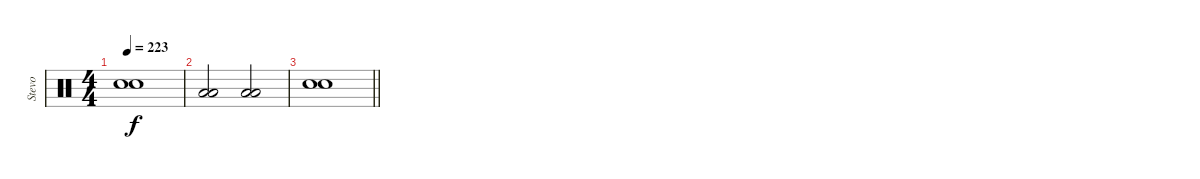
\track ("Stevo" "Stevo") {instrument percussion}
\staff {score}
\articulation defaults
\ts (4 4)
\tempo 223
\clef neutral
\ks c
("Electric Snare (hit)" "Electric Snare (hit)").1{dy f} |
("Low Floor Tom (hit)" "Low Floor Tom (hit)").2 ("Low Floor Tom (hit)" "Low Floor Tom (hit)").2 |
\barLineRight lightlight
("Electric Snare (hit)" "Electric Snare (hit)").1
